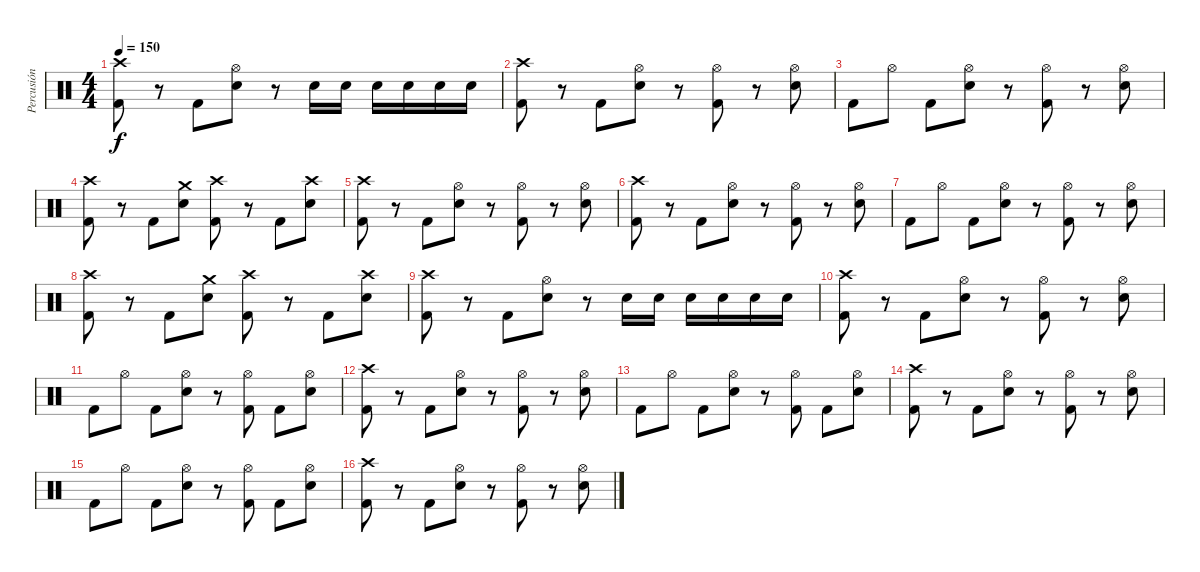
\track ("Percusión" "Percusión") {instrument percussion}
\staff {score}
\articulation defaults
\ts (4 4)
\tempo 150
\clef neutral
\ks c
("Crash high (hit)" "Kick (hit) 2").8{dy f} r.8 "Kick (hit) 2".8 ("Hi-Hat (open)" "Electric Snare (hit)").8 r.8 "Electric Snare (hit)".16 "Electric Snare (hit)".16 "Electric Snare (hit)".16 "Electric Snare (hit)".16 "Electric Snare (hit)".16 "Electric Snare (hit)".16 |
("Crash high (hit)" "Kick (hit) 2").8 r.8 "Kick (hit) 2".8 ("Hi-Hat (open)" "Electric Snare (hit)").8 r.8 ("Hi-Hat (open)" "Kick (hit) 2").8 r.8 ("Hi-Hat (open)" "Electric Snare (hit)").8 |
"Kick (hit) 2".8 "Hi-Hat (open)".8 "Kick (hit) 2".8 ("Hi-Hat (open)" "Electric Snare (hit)").8 r.8 ("Hi-Hat (open)" "Kick (hit) 2").8 r.8 ("Hi-Hat (open)" "Electric Snare (hit)").8 |
("Crash high (hit)" "Kick (hit) 2").8 r.8 "Kick (hit) 2".8 ("Crash medium (hit)" "Electric Snare (hit)").8 ("Crash high (hit)" "Kick (hit) 2").8 r.8 "Kick (hit) 2".8 ("Crash high (hit)" "Electric Snare (hit)").8 |
("Crash high (hit)" "Kick (hit) 2").8 r.8 "Kick (hit) 2".8 ("Hi-Hat (open)" "Electric Snare (hit)").8 r.8 ("Hi-Hat (open)" "Kick (hit) 2").8 r.8 ("Hi-Hat (open)" "Electric Snare (hit)").8 |
("Crash high (hit)" "Kick (hit) 2").8 r.8 "Kick (hit) 2".8 ("Hi-Hat (open)" "Electric Snare (hit)").8 r.8 ("Hi-Hat (open)" "Kick (hit) 2").8 r.8 ("Hi-Hat (open)" "Electric Snare (hit)").8 |
"Kick (hit) 2".8 "Hi-Hat (open)".8 "Kick (hit) 2".8 ("Hi-Hat (open)" "Electric Snare (hit)").8 r.8 ("Hi-Hat (open)" "Kick (hit) 2").8 r.8 ("Hi-Hat (open)" "Electric Snare (hit)").8 |
("Crash high (hit)" "Kick (hit) 2").8 r.8 "Kick (hit) 2".8 ("Crash medium (hit)" "Electric Snare (hit)").8 ("Crash high (hit)" "Kick (hit) 2").8 r.8 "Kick (hit) 2".8 ("Crash high (hit)" "Electric Snare (hit)").8 |
("Crash high (hit)" "Kick (hit) 2").8 r.8 "Kick (hit) 2".8 ("Hi-Hat (open)" "Electric Snare (hit)").8 r.8 "Electric Snare (hit)".16 "Electric Snare (hit)".16 "Electric Snare (hit)".16 "Electric Snare (hit)".16 "Electric Snare (hit)".16 "Electric Snare (hit)".16 |
("Crash high (hit)" "Kick (hit) 2").8 r.8 "Kick (hit) 2".8 ("Hi-Hat (open)" "Electric Snare (hit)").8 r.8 ("Hi-Hat (open)" "Kick (hit) 2").8 r.8 ("Hi-Hat (open)" "Electric Snare (hit)").8 |
"Kick (hit) 2".8 "Hi-Hat (open)".8 "Kick (hit) 2".8 ("Hi-Hat (open)" "Electric Snare (hit)").8 r.8 ("Hi-Hat (open)" "Kick (hit) 2").8 "Kick (hit) 2".8 ("Hi-Hat (open)" "Electric Snare (hit)").8 |
("Crash high (hit)" "Kick (hit) 2").8 r.8 "Kick (hit) 2".8 ("Hi-Hat (open)" "Electric Snare (hit)").8 r.8 ("Hi-Hat (open)" "Kick (hit) 2").8 r.8 ("Hi-Hat (open)" "Electric Snare (hit)").8 |
"Kick (hit) 2".8 "Hi-Hat (open)".8 "Kick (hit) 2".8 ("Hi-Hat (open)" "Electric Snare (hit)").8 r.8 ("Hi-Hat (open)" "Kick (hit) 2").8 "Kick (hit) 2".8 ("Hi-Hat (open)" "Electric Snare (hit)").8 |
("Crash high (hit)" "Kick (hit) 2").8 r.8 "Kick (hit) 2".8 ("Hi-Hat (open)" "Electric Snare (hit)").8 r.8 ("Hi-Hat (open)" "Kick (hit) 2").8 r.8 ("Hi-Hat (open)" "Electric Snare (hit)").8 |
"Kick (hit) 2".8 "Hi-Hat (open)".8 "Kick (hit) 2".8 ("Hi-Hat (open)" "Electric Snare (hit)").8 r.8 ("Hi-Hat (open)" "Kick (hit) 2").8 "Kick (hit) 2".8 ("Hi-Hat (open)" "Electric Snare (hit)").8 |
("Crash high (hit)" "Kick (hit) 2").8 r.8 "Kick (hit) 2".8 ("Hi-Hat (open)" "Electric Snare (hit)").8 r.8 ("Hi-Hat (open)" "Kick (hit) 2").8 r.8 ("Hi-Hat (open)" "Electric Snare (hit)").8
